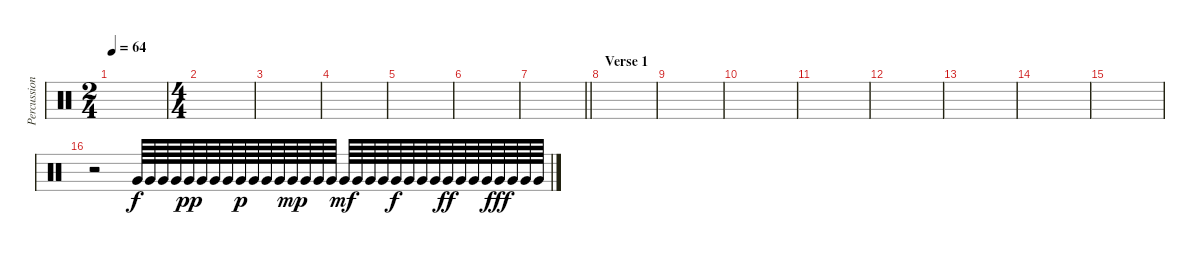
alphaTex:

\track ("Percussion" "Percussion") {instrument percussion}
\staff {score}
\articulation defaults
\ts (2 4)
\tempo 64
\clef neutral
\ks c
|
\ts (4 4)
|
|
|
|
|
\barLineRight lightlight
|
\section ("" "Verse 1")
|
|
|
|
|
|
|
|
r.2 "Very Low Tom (hit)".64 "Very Low Tom (hit)".64 "Very Low Tom (hit)".64 "Very Low Tom (hit)".64 "Very Low Tom (hit)".64{dy pp} "Very Low Tom (hit)".64 "Very Low Tom (hit)".64 "Very Low Tom (hit)".64 "Very Low Tom (hit)".64{dy p} "Very Low Tom (hit)".64 "Very Low Tom (hit)".64 "Very Low Tom (hit)".64 "Very Low Tom (hit)".64{dy mp} "Very Low Tom (hit)".64 "Very Low Tom (hit)".64 "Very Low Tom (hit)".64 "Very Low Tom (hit)".64{dy mf} "Very Low Tom (hit)".64 "Very Low Tom (hit)".64 "Very Low Tom (hit)".64 "Very Low Tom (hit)".64{dy f} "Very Low Tom (hit)".64 "Very Low Tom (hit)".64 "Very Low Tom (hit)".64 "Very Low Tom (hit)".64{dy ff} "Very Low Tom (hit)".64 "Very Low Tom (hit)".64 "Very Low Tom (hit)".64 "Very Low Tom (hit)".64{dy fff} "Very Low Tom (hit)".64 "Very Low Tom (hit)".64 "Very Low Tom (hit)".64
